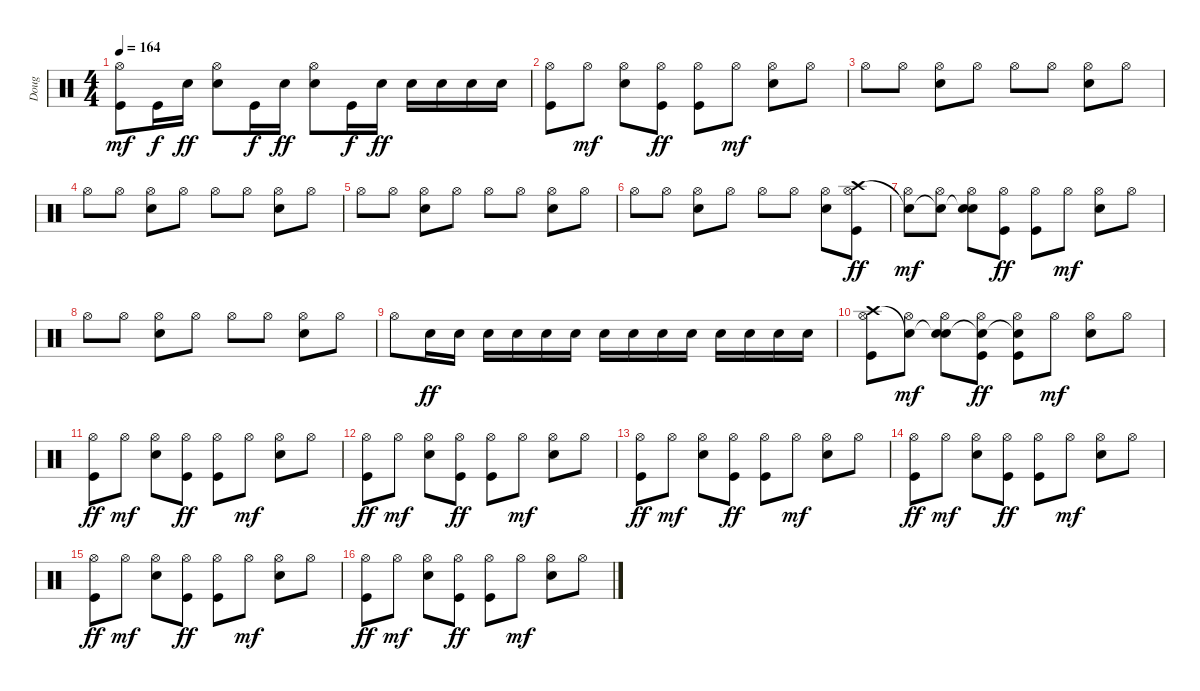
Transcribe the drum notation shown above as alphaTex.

\track ("Doug" "Doug") {instrument percussion}
\staff {score}
\articulation defaults
\ts (4 4)
\tempo 164
\clef neutral
\ks c
("Hi-Hat (open)" "Kick (hit)").8{dy mf} "Kick (hit)".16{dy f} "Electric Snare (hit)".16{dy ff} ("Hi-Hat (open)" "Electric Snare (hit)").8 "Kick (hit)".16{dy f} "Electric Snare (hit)".16{dy ff} ("Hi-Hat (open)" "Electric Snare (hit)").8 "Kick (hit)".16{dy f} "Electric Snare (hit)".16{dy ff} "Electric Snare (hit)".16 "Electric Snare (hit)".16 "Electric Snare (hit)".16 "Electric Snare (hit)".16 |
("Hi-Hat (open)" "Kick (hit)").8 "Hi-Hat (open)".8{dy mf} ("Hi-Hat (open)" "Electric Snare (hit)").8 ("Hi-Hat (open)" "Kick (hit)").8{dy ff} ("Hi-Hat (open)" "Kick (hit)").8 "Hi-Hat (open)".8{dy mf} ("Hi-Hat (open)" "Electric Snare (hit)").8 "Hi-Hat (open)".8 |
"Hi-Hat (open)".8 "Hi-Hat (open)".8 ("Hi-Hat (open)" "Electric Snare (hit)").8 "Hi-Hat (open)".8 "Hi-Hat (open)".8 "Hi-Hat (open)".8 ("Hi-Hat (open)" "Electric Snare (hit)").8 "Hi-Hat (open)".8 |
"Hi-Hat (open)".8 "Hi-Hat (open)".8 ("Hi-Hat (open)" "Electric Snare (hit)").8 "Hi-Hat (open)".8 "Hi-Hat (open)".8 "Hi-Hat (open)".8 ("Hi-Hat (open)" "Electric Snare (hit)").8 "Hi-Hat (open)".8 |
"Hi-Hat (open)".8 "Hi-Hat (open)".8 ("Hi-Hat (open)" "Electric Snare (hit)").8 "Hi-Hat (open)".8 "Hi-Hat (open)".8 "Hi-Hat (open)".8 ("Hi-Hat (open)" "Electric Snare (hit)").8 "Hi-Hat (open)".8 |
"Hi-Hat (open)".8 "Hi-Hat (open)".8 ("Hi-Hat (open)" "Electric Snare (hit)").8 "Hi-Hat (open)".8 "Hi-Hat (open)".8 "Hi-Hat (open)".8 ("Hi-Hat (open)" "Electric Snare (hit)").8 ("Crash high (hit)" "Hi-Hat (open)" "Kick (hit)").8{dy ff} |
("Snare (hit)"{t} "Hi-Hat (open)").8{dy mf} ("Snare (hit)"{t} "Hi-Hat (open)").8 ("Snare (hit)"{t} "Hi-Hat (open)" "Electric Snare (hit)").8 ("Hi-Hat (open)" "Kick (hit)").8{dy ff} ("Hi-Hat (open)" "Kick (hit)").8 "Hi-Hat (open)".8{dy mf} ("Hi-Hat (open)" "Electric Snare (hit)").8 "Hi-Hat (open)".8 |
"Hi-Hat (open)".8 "Hi-Hat (open)".8 ("Hi-Hat (open)" "Electric Snare (hit)").8 "Hi-Hat (open)".8 "Hi-Hat (open)".8 "Hi-Hat (open)".8 ("Hi-Hat (open)" "Electric Snare (hit)").8 "Hi-Hat (open)".8 |
"Hi-Hat (open)".8 "Electric Snare (hit)".16{dy ff} "Electric Snare (hit)".16 "Electric Snare (hit)".16 "Electric Snare (hit)".16 "Electric Snare (hit)".16 "Electric Snare (hit)".16 "Electric Snare (hit)".16 "Electric Snare (hit)".16 "Electric Snare (hit)".16 "Electric Snare (hit)".16 "Electric Snare (hit)".16 "Electric Snare (hit)".16 "Electric Snare (hit)".16 "Electric Snare (hit)".16 |
("Crash high (hit)" "Hi-Hat (open)" "Kick (hit)").8 ("Snare (hit)"{t} "Hi-Hat (open)").8{dy mf} ("Snare (hit)"{t} "Hi-Hat (open)" "Electric Snare (hit)").8 ("Snare (hit)"{t} "Hi-Hat (open)" "Kick (hit)").8{dy ff} ("Snare (hit)"{t} "Hi-Hat (open)" "Kick (hit)").8 "Hi-Hat (open)".8{dy mf} ("Hi-Hat (open)" "Electric Snare (hit)").8 "Hi-Hat (open)".8 |
("Hi-Hat (open)" "Kick (hit)").8{dy ff} "Hi-Hat (open)".8{dy mf} ("Hi-Hat (open)" "Electric Snare (hit)").8 ("Hi-Hat (open)" "Kick (hit)").8{dy ff} ("Hi-Hat (open)" "Kick (hit)").8 "Hi-Hat (open)".8{dy mf} ("Hi-Hat (open)" "Electric Snare (hit)").8 "Hi-Hat (open)".8 |
("Hi-Hat (open)" "Kick (hit)").8{dy ff} "Hi-Hat (open)".8{dy mf} ("Hi-Hat (open)" "Electric Snare (hit)").8 ("Hi-Hat (open)" "Kick (hit)").8{dy ff} ("Hi-Hat (open)" "Kick (hit)").8 "Hi-Hat (open)".8{dy mf} ("Hi-Hat (open)" "Electric Snare (hit)").8 "Hi-Hat (open)".8 |
("Hi-Hat (open)" "Kick (hit)").8{dy ff} "Hi-Hat (open)".8{dy mf} ("Hi-Hat (open)" "Electric Snare (hit)").8 ("Hi-Hat (open)" "Kick (hit)").8{dy ff} ("Hi-Hat (open)" "Kick (hit)").8 "Hi-Hat (open)".8{dy mf} ("Hi-Hat (open)" "Electric Snare (hit)").8 "Hi-Hat (open)".8 |
("Hi-Hat (open)" "Kick (hit)").8{dy ff} "Hi-Hat (open)".8{dy mf} ("Hi-Hat (open)" "Electric Snare (hit)").8 ("Hi-Hat (open)" "Kick (hit)").8{dy ff} ("Hi-Hat (open)" "Kick (hit)").8 "Hi-Hat (open)".8{dy mf} ("Hi-Hat (open)" "Electric Snare (hit)").8 "Hi-Hat (open)".8 |
("Hi-Hat (open)" "Kick (hit)").8{dy ff} "Hi-Hat (open)".8{dy mf} ("Hi-Hat (open)" "Electric Snare (hit)").8 ("Hi-Hat (open)" "Kick (hit)").8{dy ff} ("Hi-Hat (open)" "Kick (hit)").8 "Hi-Hat (open)".8{dy mf} ("Hi-Hat (open)" "Electric Snare (hit)").8 "Hi-Hat (open)".8 |
("Hi-Hat (open)" "Kick (hit)").8{dy ff} "Hi-Hat (open)".8{dy mf} ("Hi-Hat (open)" "Electric Snare (hit)").8 ("Hi-Hat (open)" "Kick (hit)").8{dy ff} ("Hi-Hat (open)" "Kick (hit)").8 "Hi-Hat (open)".8{dy mf} ("Hi-Hat (open)" "Electric Snare (hit)").8 "Hi-Hat (open)".8
